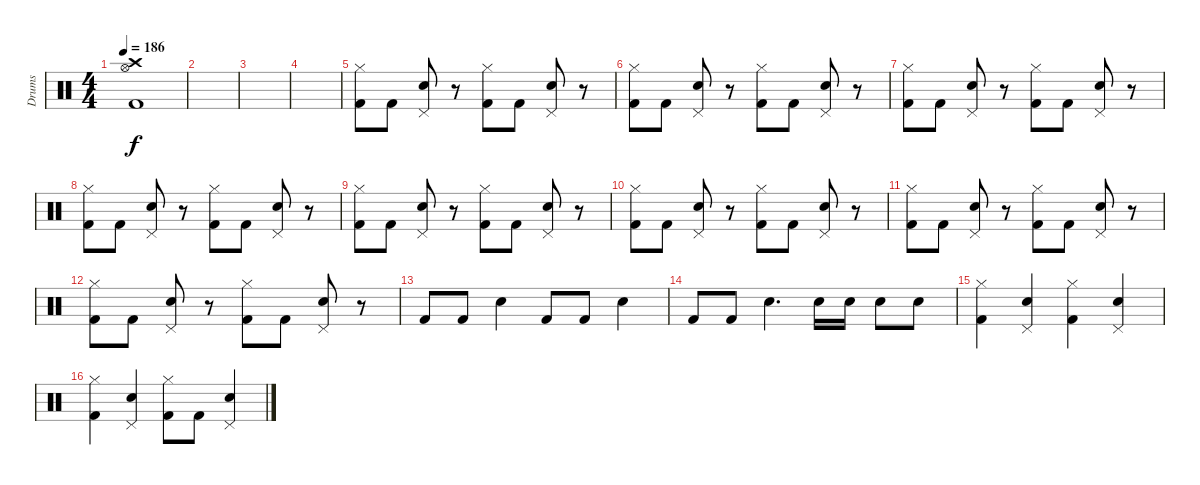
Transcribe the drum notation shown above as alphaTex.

\track ("Drums" "Drums") {instrument percussion}
\staff {score}
\articulation defaults
\ts (4 4)
\tempo 186
\clef neutral
\ks c
("Hi-Hat (open)" "Kick (hit) 2" "Crash high (hit)").1{dy f} |
|
|
|
("Hi-Hat (closed)" "Kick (hit) 2").8 "Kick (hit) 2".8 ("Pedal Hi-Hat (hit)" "Electric Snare (hit)").8 r.8 ("Hi-Hat (closed)" "Kick (hit) 2").8 "Kick (hit) 2".8 ("Pedal Hi-Hat (hit)" "Electric Snare (hit)").8 r.8 |
("Hi-Hat (closed)" "Kick (hit) 2").8 "Kick (hit) 2".8 ("Pedal Hi-Hat (hit)" "Electric Snare (hit)").8 r.8 ("Hi-Hat (closed)" "Kick (hit) 2").8 "Kick (hit) 2".8 ("Pedal Hi-Hat (hit)" "Electric Snare (hit)").8 r.8 |
("Hi-Hat (closed)" "Kick (hit) 2").8 "Kick (hit) 2".8 ("Pedal Hi-Hat (hit)" "Electric Snare (hit)").8 r.8 ("Hi-Hat (closed)" "Kick (hit) 2").8 "Kick (hit) 2".8 ("Pedal Hi-Hat (hit)" "Electric Snare (hit)").8 r.8 |
("Hi-Hat (closed)" "Kick (hit) 2").8 "Kick (hit) 2".8 ("Pedal Hi-Hat (hit)" "Electric Snare (hit)").8 r.8 ("Hi-Hat (closed)" "Kick (hit) 2").8 "Kick (hit) 2".8 ("Pedal Hi-Hat (hit)" "Electric Snare (hit)").8 r.8 |
("Hi-Hat (closed)" "Kick (hit) 2").8 "Kick (hit) 2".8 ("Pedal Hi-Hat (hit)" "Electric Snare (hit)").8 r.8 ("Hi-Hat (closed)" "Kick (hit) 2").8 "Kick (hit) 2".8 ("Pedal Hi-Hat (hit)" "Electric Snare (hit)").8 r.8 |
("Hi-Hat (closed)" "Kick (hit) 2").8 "Kick (hit) 2".8 ("Pedal Hi-Hat (hit)" "Electric Snare (hit)").8 r.8 ("Hi-Hat (closed)" "Kick (hit) 2").8 "Kick (hit) 2".8 ("Pedal Hi-Hat (hit)" "Electric Snare (hit)").8 r.8 |
("Hi-Hat (closed)" "Kick (hit) 2").8 "Kick (hit) 2".8 ("Pedal Hi-Hat (hit)" "Electric Snare (hit)").8 r.8 ("Hi-Hat (closed)" "Kick (hit) 2").8 "Kick (hit) 2".8 ("Pedal Hi-Hat (hit)" "Electric Snare (hit)").8 r.8 |
("Hi-Hat (closed)" "Kick (hit) 2").8 "Kick (hit) 2".8 ("Pedal Hi-Hat (hit)" "Electric Snare (hit)").8 r.8 ("Hi-Hat (closed)" "Kick (hit) 2").8 "Kick (hit) 2".8 ("Pedal Hi-Hat (hit)" "Electric Snare (hit)").8 r.8 |
"Kick (hit) 2".8 "Kick (hit) 2".8 "Electric Snare (hit)".4 "Kick (hit) 2".8 "Kick (hit) 2".8 "Electric Snare (hit)".4 |
"Kick (hit) 2".8 "Kick (hit) 2".8 "Electric Snare (hit)".4{d} "Electric Snare (hit)".16 "Electric Snare (hit)".16 "Electric Snare (hit)".8 "Electric Snare (hit)".8 |
("Hi-Hat (closed)" "Kick (hit) 2").4 ("Pedal Hi-Hat (hit)" "Electric Snare (hit)").4 ("Hi-Hat (closed)" "Kick (hit) 2").4 ("Pedal Hi-Hat (hit)" "Electric Snare (hit)").4 |
("Hi-Hat (closed)" "Kick (hit) 2").4 ("Pedal Hi-Hat (hit)" "Electric Snare (hit)").4 ("Hi-Hat (closed)" "Kick (hit) 2").8 "Kick (hit) 2".8 ("Pedal Hi-Hat (hit)" "Electric Snare (hit)").4
